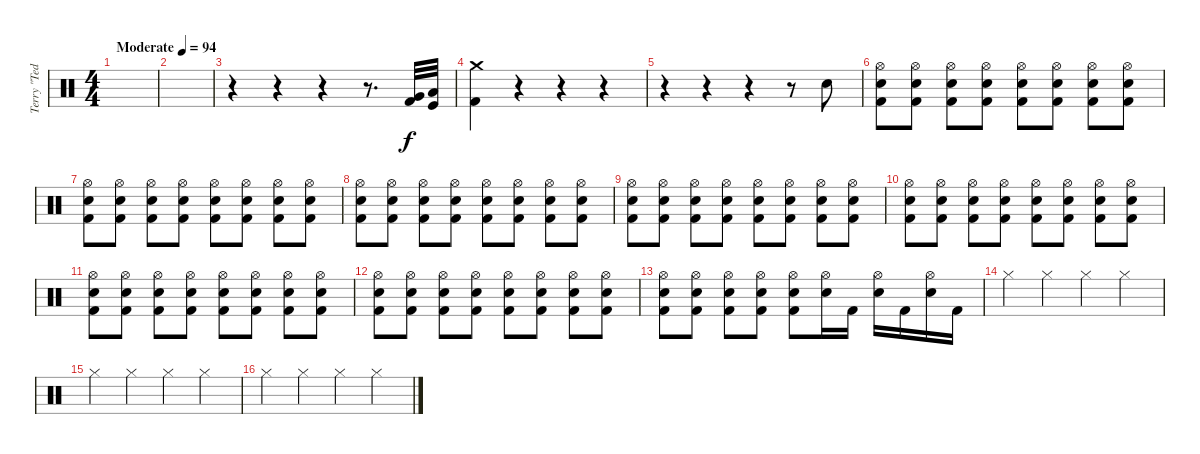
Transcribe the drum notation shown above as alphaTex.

\track ("Terry \"Ted\" Bozzio" "Terry \"Ted") {instrument percussion}
\staff {score}
\articulation defaults
\ts (4 4)
\tempo (94 "Moderate")
\clef neutral
\ks c
|
|
r.4 r.4 r.4 r.8{d} ("Very Low Tom (hit)" "Kick (hit) 2").32 ("Low Floor Tom (hit)" "Kick (hit)").32 |
("Crash medium (hit)" "Kick (hit) 2").4 r.4 r.4 r.4 |
r.4 r.4 r.4 r.8 "Electric Snare (hit)".8 |
("Hi-Hat (open)" "Electric Snare (hit)" "Kick (hit) 2").8 ("Hi-Hat (open)" "Electric Snare (hit)" "Kick (hit) 2").8 ("Hi-Hat (open)" "Electric Snare (hit)" "Kick (hit) 2").8 ("Hi-Hat (open)" "Electric Snare (hit)" "Kick (hit) 2").8 ("Hi-Hat (open)" "Electric Snare (hit)" "Kick (hit) 2").8 ("Hi-Hat (open)" "Electric Snare (hit)" "Kick (hit) 2").8 ("Hi-Hat (open)" "Electric Snare (hit)" "Kick (hit) 2").8 ("Hi-Hat (open)" "Electric Snare (hit)" "Kick (hit) 2").8 |
("Hi-Hat (open)" "Electric Snare (hit)" "Kick (hit) 2").8 ("Hi-Hat (open)" "Electric Snare (hit)" "Kick (hit) 2").8 ("Hi-Hat (open)" "Electric Snare (hit)" "Kick (hit) 2").8 ("Hi-Hat (open)" "Electric Snare (hit)" "Kick (hit) 2").8 ("Hi-Hat (open)" "Electric Snare (hit)" "Kick (hit) 2").8 ("Hi-Hat (open)" "Electric Snare (hit)" "Kick (hit) 2").8 ("Hi-Hat (open)" "Electric Snare (hit)" "Kick (hit) 2").8 ("Hi-Hat (open)" "Electric Snare (hit)" "Kick (hit) 2").8 |
("Hi-Hat (open)" "Electric Snare (hit)" "Kick (hit) 2").8 ("Hi-Hat (open)" "Electric Snare (hit)" "Kick (hit) 2").8 ("Hi-Hat (open)" "Electric Snare (hit)" "Kick (hit) 2").8 ("Hi-Hat (open)" "Electric Snare (hit)" "Kick (hit) 2").8 ("Hi-Hat (open)" "Electric Snare (hit)" "Kick (hit) 2").8 ("Hi-Hat (open)" "Electric Snare (hit)" "Kick (hit) 2").8 ("Hi-Hat (open)" "Electric Snare (hit)" "Kick (hit) 2").8 ("Hi-Hat (open)" "Electric Snare (hit)" "Kick (hit) 2").8 |
("Hi-Hat (open)" "Electric Snare (hit)" "Kick (hit) 2").8 ("Hi-Hat (open)" "Electric Snare (hit)" "Kick (hit) 2").8 ("Hi-Hat (open)" "Electric Snare (hit)" "Kick (hit) 2").8 ("Hi-Hat (open)" "Electric Snare (hit)" "Kick (hit) 2").8 ("Hi-Hat (open)" "Electric Snare (hit)" "Kick (hit) 2").8 ("Hi-Hat (open)" "Electric Snare (hit)" "Kick (hit) 2").8 ("Hi-Hat (open)" "Electric Snare (hit)" "Kick (hit) 2").8 ("Hi-Hat (open)" "Electric Snare (hit)" "Kick (hit) 2").8 |
("Hi-Hat (open)" "Electric Snare (hit)" "Kick (hit) 2").8 ("Hi-Hat (open)" "Electric Snare (hit)" "Kick (hit) 2").8 ("Hi-Hat (open)" "Electric Snare (hit)" "Kick (hit) 2").8 ("Hi-Hat (open)" "Electric Snare (hit)" "Kick (hit) 2").8 ("Hi-Hat (open)" "Electric Snare (hit)" "Kick (hit) 2").8 ("Hi-Hat (open)" "Electric Snare (hit)" "Kick (hit) 2").8 ("Hi-Hat (open)" "Electric Snare (hit)" "Kick (hit) 2").8 ("Hi-Hat (open)" "Electric Snare (hit)" "Kick (hit) 2").8 |
("Hi-Hat (open)" "Electric Snare (hit)" "Kick (hit) 2").8 ("Hi-Hat (open)" "Electric Snare (hit)" "Kick (hit) 2").8 ("Hi-Hat (open)" "Electric Snare (hit)" "Kick (hit) 2").8 ("Hi-Hat (open)" "Electric Snare (hit)" "Kick (hit) 2").8 ("Hi-Hat (open)" "Electric Snare (hit)" "Kick (hit) 2").8 ("Hi-Hat (open)" "Electric Snare (hit)" "Kick (hit) 2").8 ("Hi-Hat (open)" "Electric Snare (hit)" "Kick (hit) 2").8 ("Hi-Hat (open)" "Electric Snare (hit)" "Kick (hit) 2").8 |
("Hi-Hat (open)" "Electric Snare (hit)" "Kick (hit) 2").8 ("Hi-Hat (open)" "Electric Snare (hit)" "Kick (hit) 2").8 ("Hi-Hat (open)" "Electric Snare (hit)" "Kick (hit) 2").8 ("Hi-Hat (open)" "Electric Snare (hit)" "Kick (hit) 2").8 ("Hi-Hat (open)" "Electric Snare (hit)" "Kick (hit) 2").8 ("Hi-Hat (open)" "Electric Snare (hit)" "Kick (hit) 2").8 ("Hi-Hat (open)" "Electric Snare (hit)" "Kick (hit) 2").8 ("Hi-Hat (open)" "Electric Snare (hit)" "Kick (hit) 2").8 |
("Hi-Hat (open)" "Electric Snare (hit)" "Kick (hit) 2").8 ("Hi-Hat (open)" "Electric Snare (hit)" "Kick (hit) 2").8 ("Hi-Hat (open)" "Electric Snare (hit)" "Kick (hit) 2").8 ("Hi-Hat (open)" "Electric Snare (hit)" "Kick (hit) 2").8 ("Hi-Hat (open)" "Electric Snare (hit)" "Kick (hit) 2").8 ("Hi-Hat (open)" "Electric Snare (hit)").16 "Kick (hit) 2".16 ("Hi-Hat (open)" "Electric Snare (hit)").16 "Kick (hit) 2".16 ("Hi-Hat (open)" "Electric Snare (hit)").16 "Kick (hit) 2".16 |
"Hi-Hat (closed)".4 "Hi-Hat (closed)".4 "Hi-Hat (closed)".4 "Hi-Hat (closed)".4 |
"Hi-Hat (closed)".4 "Hi-Hat (closed)".4 "Hi-Hat (closed)".4 "Hi-Hat (closed)".4 |
"Hi-Hat (closed)".4 "Hi-Hat (closed)".4 "Hi-Hat (closed)".4 "Hi-Hat (closed)".4
